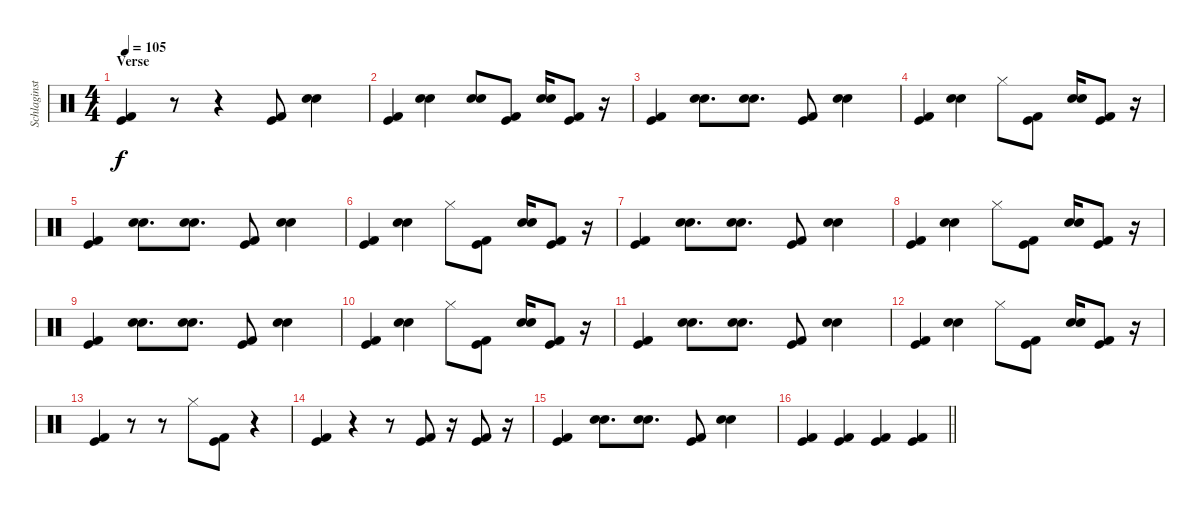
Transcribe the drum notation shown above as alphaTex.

\track ("Schlaginstrumente - Auswahl" "Schlaginst") {instrument percussion}
\staff {score}
\articulation defaults
\ts (4 4)
\section ("" "Verse")
\tempo 105
\clef neutral
\ks c
("Kick (hit)" "Kick (hit) 2").4{dy f} r.8 r.4 ("Kick (hit) 2" "Kick (hit)").8 ("Snare (hit) 2" "Electric Snare (hit)").4 |
("Kick (hit)" "Kick (hit) 2").4 ("Snare (hit) 2" "Electric Snare (hit)").4 ("Snare (hit) 2" "Electric Snare (hit)").8 ("Kick (hit) 2" "Kick (hit)").8 ("Snare (hit) 2" "Electric Snare (hit)").16 ("Kick (hit)" "Kick (hit) 2").8 r.16 |
("Kick (hit)" "Kick (hit) 2").4 ("Electric Snare (hit)" "Snare (hit) 2").8{d} ("Electric Snare (hit)" "Snare (hit) 2").8{d} ("Kick (hit) 2" "Kick (hit)").8 ("Snare (hit) 2" "Electric Snare (hit)").4 |
("Kick (hit)" "Kick (hit) 2").4 ("Snare (hit) 2" "Electric Snare (hit)").4 "Hi-Hat (closed)".8 ("Kick (hit) 2" "Kick (hit)").8 ("Snare (hit) 2" "Electric Snare (hit)").16 ("Kick (hit)" "Kick (hit) 2").8 r.16 |
("Kick (hit)" "Kick (hit) 2").4 ("Electric Snare (hit)" "Snare (hit) 2").8{d} ("Electric Snare (hit)" "Snare (hit) 2").8{d} ("Kick (hit) 2" "Kick (hit)").8 ("Snare (hit) 2" "Electric Snare (hit)").4 |
("Kick (hit)" "Kick (hit) 2").4 ("Snare (hit) 2" "Electric Snare (hit)").4 "Hi-Hat (closed)".8 ("Kick (hit) 2" "Kick (hit)").8 ("Snare (hit) 2" "Electric Snare (hit)").16 ("Kick (hit)" "Kick (hit) 2").8 r.16 |
("Kick (hit)" "Kick (hit) 2").4 ("Electric Snare (hit)" "Snare (hit) 2").8{d} ("Electric Snare (hit)" "Snare (hit) 2").8{d} ("Kick (hit) 2" "Kick (hit)").8 ("Snare (hit) 2" "Electric Snare (hit)").4 |
("Kick (hit)" "Kick (hit) 2").4 ("Snare (hit) 2" "Electric Snare (hit)").4 "Hi-Hat (closed)".8 ("Kick (hit) 2" "Kick (hit)").8 ("Snare (hit) 2" "Electric Snare (hit)").16 ("Kick (hit)" "Kick (hit) 2").8 r.16 |
("Kick (hit)" "Kick (hit) 2").4 ("Electric Snare (hit)" "Snare (hit) 2").8{d} ("Electric Snare (hit)" "Snare (hit) 2").8{d} ("Kick (hit) 2" "Kick (hit)").8 ("Snare (hit) 2" "Electric Snare (hit)").4 |
("Kick (hit)" "Kick (hit) 2").4 ("Snare (hit) 2" "Electric Snare (hit)").4 "Hi-Hat (closed)".8 ("Kick (hit) 2" "Kick (hit)").8 ("Snare (hit) 2" "Electric Snare (hit)").16 ("Kick (hit)" "Kick (hit) 2").8 r.16 |
("Kick (hit)" "Kick (hit) 2").4 ("Electric Snare (hit)" "Snare (hit) 2").8{d} ("Electric Snare (hit)" "Snare (hit) 2").8{d} ("Kick (hit) 2" "Kick (hit)").8 ("Snare (hit) 2" "Electric Snare (hit)").4 |
("Kick (hit)" "Kick (hit) 2").4 ("Snare (hit) 2" "Electric Snare (hit)").4 "Hi-Hat (closed)".8 ("Kick (hit) 2" "Kick (hit)").8 ("Snare (hit) 2" "Electric Snare (hit)").16 ("Kick (hit)" "Kick (hit) 2").8 r.16 |
("Kick (hit)" "Kick (hit) 2").4 r.8 r.8 "Hi-Hat (closed)".8 ("Kick (hit) 2" "Kick (hit)").8 r.4 |
("Kick (hit)" "Kick (hit) 2").4 r.4 r.8 ("Kick (hit) 2" "Kick (hit)").8 r.16 ("Kick (hit)" "Kick (hit) 2").8 r.16 |
("Kick (hit)" "Kick (hit) 2").4 ("Electric Snare (hit)" "Snare (hit) 2").8{d} ("Electric Snare (hit)" "Snare (hit) 2").8{d} ("Kick (hit) 2" "Kick (hit)").8 ("Snare (hit) 2" "Electric Snare (hit)").4 |
\barLineRight lightlight
("Kick (hit)" "Kick (hit) 2").4 ("Kick (hit)" "Kick (hit) 2").4 ("Kick (hit)" "Kick (hit) 2").4 ("Kick (hit)" "Kick (hit) 2").4
